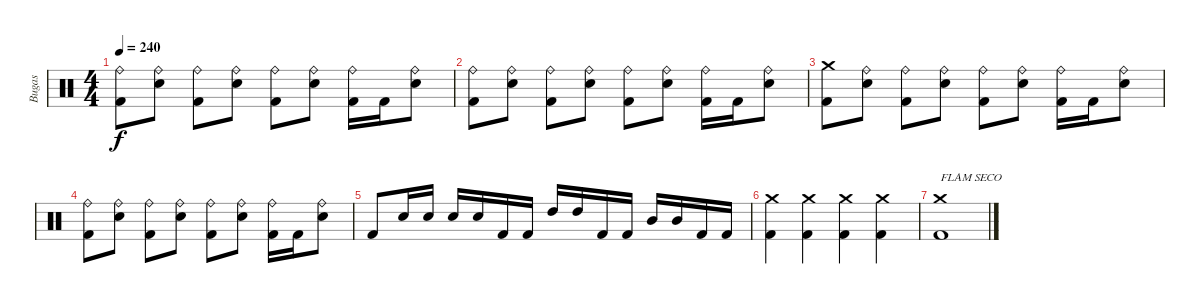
\track ("Bugas" "Bugas") {instrument percussion}
\staff {score}
\articulation defaults
\ts (4 4)
\tempo 240
\clef neutral
\ks c
("Ride (bell)" "Kick (hit) 2").8{dy f} ("Ride (bell)" "Electric Snare (hit)").8 ("Ride (bell)" "Kick (hit) 2").8 ("Ride (bell)" "Electric Snare (hit)").8 ("Ride (bell)" "Kick (hit) 2").8 ("Ride (bell)" "Electric Snare (hit)").8 ("Ride (bell)" "Kick (hit) 2").16 "Kick (hit) 2".16 ("Ride (bell)" "Electric Snare (hit)").8 |
("Ride (bell)" "Kick (hit) 2").8 ("Ride (bell)" "Electric Snare (hit)").8 ("Ride (bell)" "Kick (hit) 2").8 ("Ride (bell)" "Electric Snare (hit)").8 ("Ride (bell)" "Kick (hit) 2").8 ("Ride (bell)" "Electric Snare (hit)").8 ("Ride (bell)" "Kick (hit) 2").16 "Kick (hit) 2".16 ("Ride (bell)" "Electric Snare (hit)").8 |
("Crash medium (hit)" "Kick (hit) 2").8 ("Ride (bell)" "Electric Snare (hit)").8 ("Ride (bell)" "Kick (hit) 2").8 ("Ride (bell)" "Electric Snare (hit)").8 ("Ride (bell)" "Kick (hit) 2").8 ("Ride (bell)" "Electric Snare (hit)").8 ("Ride (bell)" "Kick (hit) 2").16 "Kick (hit) 2".16 ("Ride (bell)" "Electric Snare (hit)").8 |
("Ride (bell)" "Kick (hit) 2").8 ("Ride (bell)" "Electric Snare (hit)").8 ("Ride (bell)" "Kick (hit) 2").8 ("Ride (bell)" "Electric Snare (hit)").8 ("Ride (bell)" "Kick (hit) 2").8 ("Ride (bell)" "Electric Snare (hit)").8 ("Ride (bell)" "Kick (hit) 2").16 "Kick (hit) 2".16 ("Ride (bell)" "Electric Snare (hit)").8 |
"Kick (hit) 2".8 "Electric Snare (hit)".16 "Electric Snare (hit)".16 "Electric Snare (hit)".16 "Electric Snare (hit)".16 "Kick (hit) 2".16 "Kick (hit) 2".16 "High Tom (hit)".16 "High Tom (hit)".16 "Kick (hit) 2".16 "Kick (hit) 2".16 "Mid Tom (hit)".16 "Mid Tom (hit)".16 "Kick (hit) 2".16 "Kick (hit) 2".16 |
("Crash medium (hit)" "Kick (hit) 2").4 ("Crash medium (hit)" "Kick (hit) 2").4 ("Crash medium (hit)" "Kick (hit) 2").4 ("Crash medium (hit)" "Kick (hit) 2").4 |
("Crash medium (hit)" "Kick (hit) 2").1{txt "FLAM SECO"}
